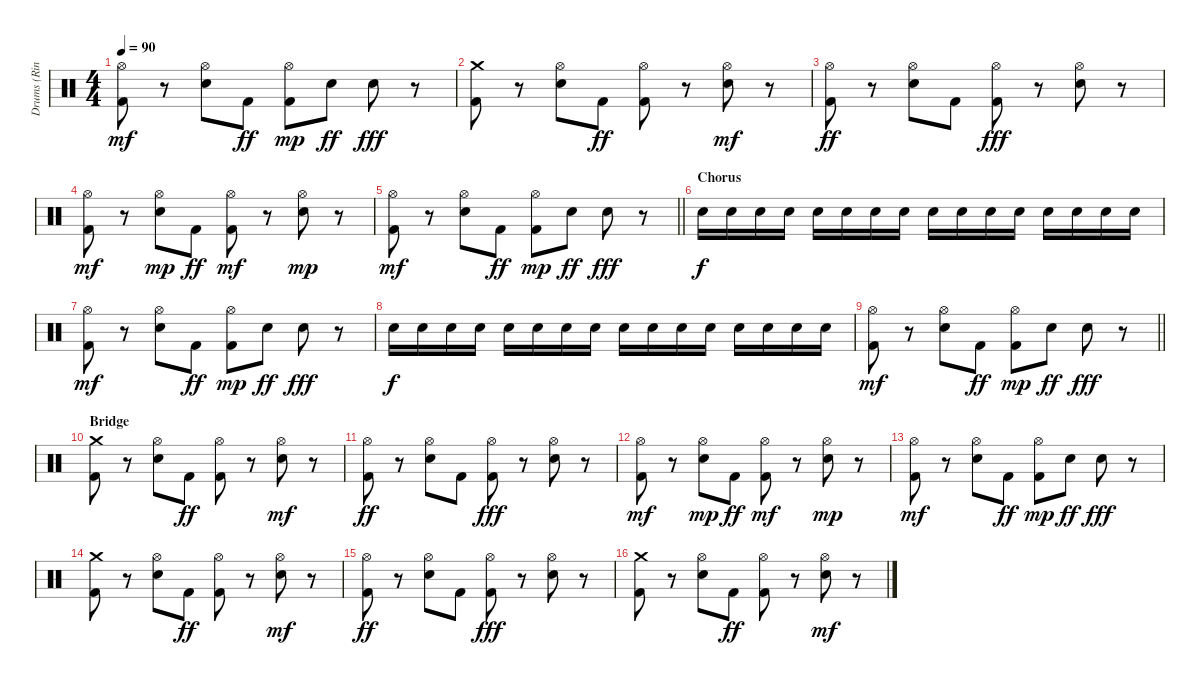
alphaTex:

\track ("Drums (Ringo Starr)" "Drums (Rin") {instrument percussion}
\staff {score}
\articulation defaults
\ts (4 4)
\tempo 90
\clef neutral
\ks c
("Kick (hit) 2" "Hi-Hat (open)").8{dy mf} r.8 ("Electric Snare (hit)" "Hi-Hat (open)").8 "Kick (hit) 2".8{dy ff} ("Kick (hit) 2" "Hi-Hat (open)").8{dy mp} "Electric Snare (hit)".8{dy ff} "Electric Snare (hit)".8{dy fff} r.8 |
("Crash medium (hit)" "Kick (hit) 2").8 r.8 ("Hi-Hat (open)" "Electric Snare (hit)").8 "Kick (hit) 2".8{dy ff} ("Kick (hit) 2" "Hi-Hat (open)").8 r.8 ("Electric Snare (hit)" "Hi-Hat (open)").8{dy mf} r.8 |
("Hi-Hat (open)" "Kick (hit) 2").8{dy ff} r.8 ("Hi-Hat (open)" "Electric Snare (hit)").8 "Kick (hit) 2".8 ("Hi-Hat (open)" "Kick (hit) 2").8{dy fff} r.8 ("Electric Snare (hit)" "Hi-Hat (open)").8 r.8 |
("Kick (hit) 2" "Hi-Hat (open)").8{dy mf} r.8 ("Electric Snare (hit)" "Hi-Hat (open)").8{dy mp} "Kick (hit) 2".8{dy ff} ("Kick (hit) 2" "Hi-Hat (open)").8{dy mf} r.8 ("Electric Snare (hit)" "Hi-Hat (open)").8{dy mp} r.8 |
\barLineRight lightlight
("Kick (hit) 2" "Hi-Hat (open)").8{dy mf} r.8 ("Electric Snare (hit)" "Hi-Hat (open)").8 "Kick (hit) 2".8{dy ff} ("Kick (hit) 2" "Hi-Hat (open)").8{dy mp} "Electric Snare (hit)".8{dy ff} "Electric Snare (hit)".8{dy fff} r.8 |
\section ("" "Chorus ")
"Electric Snare (hit)".16{dy f} "Electric Snare (hit)".16 "Electric Snare (hit)".16 "Electric Snare (hit)".16 "Electric Snare (hit)".16 "Electric Snare (hit)".16 "Electric Snare (hit)".16 "Electric Snare (hit)".16 "Electric Snare (hit)".16 "Electric Snare (hit)".16 "Electric Snare (hit)".16 "Electric Snare (hit)".16 "Electric Snare (hit)".16 "Electric Snare (hit)".16 "Electric Snare (hit)".16 "Electric Snare (hit)".16 |
("Kick (hit) 2" "Hi-Hat (open)").8{dy mf} r.8 ("Electric Snare (hit)" "Hi-Hat (open)").8 "Kick (hit) 2".8{dy ff} ("Kick (hit) 2" "Hi-Hat (open)").8{dy mp} "Electric Snare (hit)".8{dy ff} "Electric Snare (hit)".8{dy fff} r.8 |
"Electric Snare (hit)".16{dy f} "Electric Snare (hit)".16 "Electric Snare (hit)".16 "Electric Snare (hit)".16 "Electric Snare (hit)".16 "Electric Snare (hit)".16 "Electric Snare (hit)".16 "Electric Snare (hit)".16 "Electric Snare (hit)".16 "Electric Snare (hit)".16 "Electric Snare (hit)".16 "Electric Snare (hit)".16 "Electric Snare (hit)".16 "Electric Snare (hit)".16 "Electric Snare (hit)".16 "Electric Snare (hit)".16 |
\barLineRight lightlight
("Kick (hit) 2" "Hi-Hat (open)").8{dy mf} r.8 ("Electric Snare (hit)" "Hi-Hat (open)").8 "Kick (hit) 2".8{dy ff} ("Kick (hit) 2" "Hi-Hat (open)").8{dy mp} "Electric Snare (hit)".8{dy ff} "Electric Snare (hit)".8{dy fff} r.8 |
\section ("" "Bridge")
("Crash medium (hit)" "Kick (hit) 2").8 r.8 ("Hi-Hat (open)" "Electric Snare (hit)").8 "Kick (hit) 2".8{dy ff} ("Kick (hit) 2" "Hi-Hat (open)").8 r.8 ("Electric Snare (hit)" "Hi-Hat (open)").8{dy mf} r.8 |
("Hi-Hat (open)" "Kick (hit) 2").8{dy ff} r.8 ("Hi-Hat (open)" "Electric Snare (hit)").8 "Kick (hit) 2".8 ("Hi-Hat (open)" "Kick (hit) 2").8{dy fff} r.8 ("Electric Snare (hit)" "Hi-Hat (open)").8 r.8 |
("Kick (hit) 2" "Hi-Hat (open)").8{dy mf} r.8 ("Electric Snare (hit)" "Hi-Hat (open)").8{dy mp} "Kick (hit) 2".8{dy ff} ("Kick (hit) 2" "Hi-Hat (open)").8{dy mf} r.8 ("Electric Snare (hit)" "Hi-Hat (open)").8{dy mp} r.8 |
("Kick (hit) 2" "Hi-Hat (open)").8{dy mf} r.8 ("Electric Snare (hit)" "Hi-Hat (open)").8 "Kick (hit) 2".8{dy ff} ("Kick (hit) 2" "Hi-Hat (open)").8{dy mp} "Electric Snare (hit)".8{dy ff} "Electric Snare (hit)".8{dy fff} r.8 |
("Crash medium (hit)" "Kick (hit) 2").8 r.8 ("Hi-Hat (open)" "Electric Snare (hit)").8 "Kick (hit) 2".8{dy ff} ("Kick (hit) 2" "Hi-Hat (open)").8 r.8 ("Electric Snare (hit)" "Hi-Hat (open)").8{dy mf} r.8 |
("Hi-Hat (open)" "Kick (hit) 2").8{dy ff} r.8 ("Hi-Hat (open)" "Electric Snare (hit)").8 "Kick (hit) 2".8 ("Hi-Hat (open)" "Kick (hit) 2").8{dy fff} r.8 ("Electric Snare (hit)" "Hi-Hat (open)").8 r.8 |
("Crash medium (hit)" "Kick (hit) 2").8 r.8 ("Hi-Hat (open)" "Electric Snare (hit)").8 "Kick (hit) 2".8{dy ff} ("Kick (hit) 2" "Hi-Hat (open)").8 r.8 ("Electric Snare (hit)" "Hi-Hat (open)").8{dy mf} r.8
